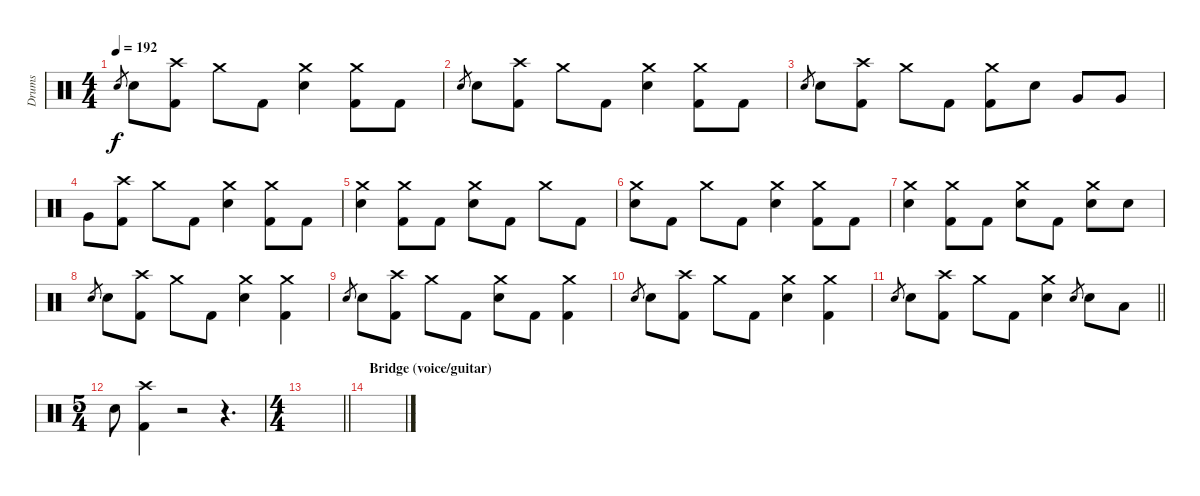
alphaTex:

\track ("Drums" "Drums") {instrument percussion}
\staff {score}
\articulation defaults
\ts (4 4)
\tempo 192
\clef neutral
\ks c "Electric Snare (hit)".8{gr dy f} "Electric Snare (hit)".8
("Crash high (hit)" "Kick (hit) 2").8 "Crash medium (hit)".8 "Kick (hit) 2".8 ("Crash medium (hit)" "Electric Snare (hit)").4 ("Crash medium (hit)" "Kick (hit) 2").8 "Kick (hit) 2".8 |
"Electric Snare (hit)".8{gr} "Electric Snare (hit)".8 ("Crash high (hit)" "Kick (hit) 2").8 "Crash medium (hit)".8 "Kick (hit) 2".8 ("Crash medium (hit)" "Electric Snare (hit)").4 ("Crash medium (hit)" "Kick (hit) 2").8 "Kick (hit) 2".8 |
"Electric Snare (hit)".8{gr} "Electric Snare (hit)".8 ("Crash high (hit)" "Kick (hit) 2").8 "Crash medium (hit)".8 "Kick (hit) 2".8 ("Crash medium (hit)" "Kick (hit) 2").8 "Electric Snare (hit)".8 "Very Low Tom (hit)".8 "Very Low Tom (hit)".8 |
"Very Low Tom (hit)".8 ("Crash high (hit)" "Kick (hit) 2").8 "Crash medium (hit)".8 "Kick (hit) 2".8 ("Crash medium (hit)" "Electric Snare (hit)").4 ("Crash medium (hit)" "Kick (hit) 2").8 "Kick (hit) 2".8 |
("Crash medium (hit)" "Electric Snare (hit)").4 ("Crash medium (hit)" "Kick (hit) 2").8 "Kick (hit) 2".8 ("Crash medium (hit)" "Electric Snare (hit)").8 "Kick (hit) 2".8 "Crash medium (hit)".8 "Kick (hit) 2".8 |
("Crash medium (hit)" "Electric Snare (hit)").8 "Kick (hit) 2".8 "Crash medium (hit)".8 "Kick (hit) 2".8 ("Crash medium (hit)" "Electric Snare (hit)").4 ("Crash medium (hit)" "Kick (hit) 2").8 "Kick (hit) 2".8 |
("Crash medium (hit)" "Electric Snare (hit)").4 ("Crash medium (hit)" "Kick (hit) 2").8 "Kick (hit) 2".8 ("Crash medium (hit)" "Electric Snare (hit)").8 "Kick (hit) 2".8 ("Crash medium (hit)" "Electric Snare (hit)").8 "Electric Snare (hit)".8 |
"Electric Snare (hit)".8{gr} "Electric Snare (hit)".8 ("Crash high (hit)" "Kick (hit) 2").8 "Crash medium (hit)".8 "Kick (hit) 2".8 ("Crash medium (hit)" "Electric Snare (hit)").4 ("Crash medium (hit)" "Kick (hit) 2").4 |
"Electric Snare (hit)".8{gr} "Electric Snare (hit)".8 ("Crash high (hit)" "Kick (hit) 2").8 "Crash medium (hit)".8 "Kick (hit) 2".8 ("Crash medium (hit)" "Electric Snare (hit)").8 "Kick (hit) 2".8 ("Crash medium (hit)" "Kick (hit) 2").4 |
"Electric Snare (hit)".8{gr} "Electric Snare (hit)".8 ("Crash high (hit)" "Kick (hit) 2").8 "Crash medium (hit)".8 "Kick (hit) 2".8 ("Crash medium (hit)" "Electric Snare (hit)").4 ("Crash medium (hit)" "Kick (hit) 2").4 |
\barLineRight lightlight "Electric Snare (hit)".8{gr} "Electric Snare (hit)".8
("Crash high (hit)" "Kick (hit) 2").8 "Crash medium (hit)".8 "Kick (hit) 2".8 ("Crash medium (hit)" "Electric Snare (hit)").4 "Electric Snare (hit)".8{gr} "Electric Snare (hit)".8 "Low Tom (hit)".8 |
\ts (5 4)
\section ("" "")
"Electric Snare (hit)".8 ("Crash high (hit)" "Kick (hit) 2").4 r.2 r.4{d} |
\ts (4 4)
\barLineRight lightlight
|
\section ("" "Bridge (voice/guitar)")
